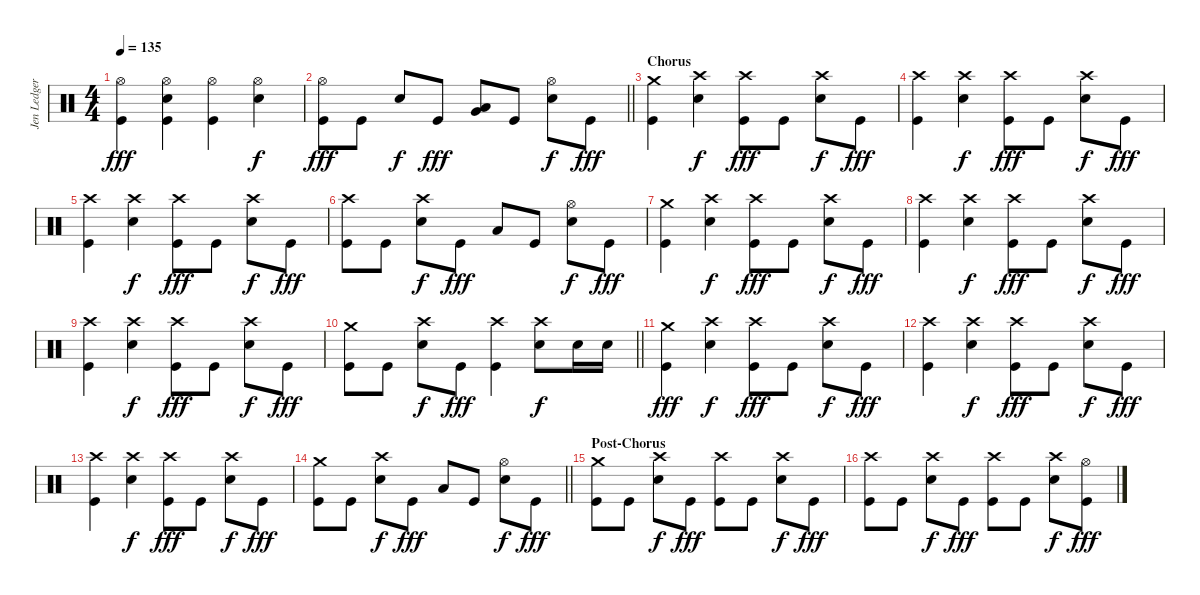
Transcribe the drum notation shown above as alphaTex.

\track ("Jen Ledger" "Jen Ledger") {instrument percussion}
\staff {score}
\articulation defaults
\ts (4 4)
\tempo 135
\clef neutral
\ks c
("Hi-Hat (open)" "Kick (hit)").4{dy fff} ("Hi-Hat (open)" "Snare (hit) 2" "Kick (hit)").4 ("Hi-Hat (open)" "Kick (hit)").4 ("Hi-Hat (open)" "Snare (hit) 2").4{dy f} |
\barLineRight lightlight
("Hi-Hat (open)" "Kick (hit)").8{dy fff} "Kick (hit)".8 "Snare (hit) 2".8{dy f} "Kick (hit)".8{dy fff} ("Low Tom (hit)" "Very Low Tom (hit)").8 "Kick (hit)".8 ("Hi-Hat (open)" "Snare (hit) 2").8{dy f} "Kick (hit)".8{dy fff} |
\section ("" "Chorus")
("Crash medium (hit)" "Kick (hit)").4 ("Crash high (hit)" "Snare (hit) 2").4{dy f} ("Crash high (hit)" "Kick (hit)").8{dy fff} "Kick (hit)".8 ("Crash high (hit)" "Snare (hit) 2").8{dy f} "Kick (hit)".8{dy fff} |
("Crash high (hit)" "Kick (hit)").4 ("Crash high (hit)" "Snare (hit) 2").4{dy f} ("Crash high (hit)" "Kick (hit)").8{dy fff} "Kick (hit)".8 ("Crash high (hit)" "Snare (hit) 2").8{dy f} "Kick (hit)".8{dy fff} |
("Crash high (hit)" "Kick (hit)").4 ("Crash high (hit)" "Snare (hit) 2").4{dy f} ("Crash high (hit)" "Kick (hit)").8{dy fff} "Kick (hit)".8 ("Crash high (hit)" "Snare (hit) 2").8{dy f} "Kick (hit)".8{dy fff} |
("Crash high (hit)" "Kick (hit)").8 "Kick (hit)".8 ("Crash high (hit)" "Snare (hit) 2").8{dy f} "Kick (hit)".8{dy fff} "Low Tom (hit)".8 "Kick (hit)".8 ("Hi-Hat (open)" "Snare (hit) 2").8{dy f} "Kick (hit)".8{dy fff} |
("Crash medium (hit)" "Kick (hit)").4 ("Crash high (hit)" "Snare (hit) 2").4{dy f} ("Crash high (hit)" "Kick (hit)").8{dy fff} "Kick (hit)".8 ("Crash high (hit)" "Snare (hit) 2").8{dy f} "Kick (hit)".8{dy fff} |
("Crash high (hit)" "Kick (hit)").4 ("Crash high (hit)" "Snare (hit) 2").4{dy f} ("Crash high (hit)" "Kick (hit)").8{dy fff} "Kick (hit)".8 ("Crash high (hit)" "Snare (hit) 2").8{dy f} "Kick (hit)".8{dy fff} |
("Crash high (hit)" "Kick (hit)").4 ("Crash high (hit)" "Snare (hit) 2").4{dy f} ("Crash high (hit)" "Kick (hit)").8{dy fff} "Kick (hit)".8 ("Crash high (hit)" "Snare (hit) 2").8{dy f} "Kick (hit)".8{dy fff} |
\barLineRight lightlight
("Crash medium (hit)" "Kick (hit)").8 "Kick (hit)".8 ("Crash high (hit)" "Snare (hit) 2").8{dy f} "Kick (hit)".8{dy fff} ("Crash high (hit)" "Kick (hit)").4 ("Crash high (hit)" "Snare (hit) 2").8{dy f} "Snare (hit) 2".16 "Snare (hit) 2".16 |
("Crash medium (hit)" "Kick (hit)").4{dy fff} ("Crash high (hit)" "Snare (hit) 2").4{dy f} ("Crash high (hit)" "Kick (hit)").8{dy fff} "Kick (hit)".8 ("Crash high (hit)" "Snare (hit) 2").8{dy f} "Kick (hit)".8{dy fff} |
("Crash high (hit)" "Kick (hit)").4 ("Crash high (hit)" "Snare (hit) 2").4{dy f} ("Crash high (hit)" "Kick (hit)").8{dy fff} "Kick (hit)".8 ("Crash high (hit)" "Snare (hit) 2").8{dy f} "Kick (hit)".8{dy fff} |
("Crash high (hit)" "Kick (hit)").4 ("Crash high (hit)" "Snare (hit) 2").4{dy f} ("Crash high (hit)" "Kick (hit)").8{dy fff} "Kick (hit)".8 ("Crash high (hit)" "Snare (hit) 2").8{dy f} "Kick (hit)".8{dy fff} |
\barLineRight lightlight
("Crash medium (hit)" "Kick (hit)").8 "Kick (hit)".8 ("Crash high (hit)" "Snare (hit) 2").8{dy f} "Kick (hit)".8{dy fff} "Low Tom (hit)".8 "Kick (hit)".8 ("Hi-Hat (open)" "Snare (hit) 2").8{dy f} "Kick (hit)".8{dy fff} |
\section ("" "Post-Chorus")
("Crash medium (hit)" "Kick (hit)").8 "Kick (hit)".8 ("Crash high (hit)" "Snare (hit) 2").8{dy f} "Kick (hit)".8{dy fff} ("Crash high (hit)" "Kick (hit)").8 "Kick (hit)".8 ("Crash high (hit)" "Snare (hit) 2").8{dy f} "Kick (hit)".8{dy fff} |
("Crash high (hit)" "Kick (hit)").8 "Kick (hit)".8 ("Crash high (hit)" "Snare (hit) 2").8{dy f} "Kick (hit)".8{dy fff} ("Crash high (hit)" "Kick (hit)").8 "Kick (hit)".8 ("Crash high (hit)" "Snare (hit) 2").8{dy f} ("Hi-Hat (open)" "Kick (hit)").8{dy fff}
